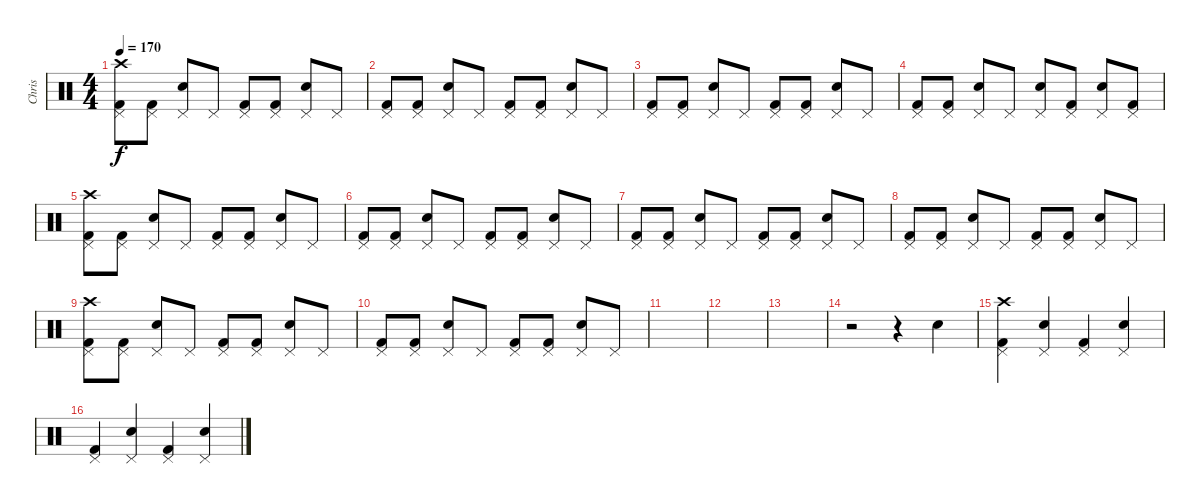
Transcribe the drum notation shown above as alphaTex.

\track ("Chris" "Chris") {instrument percussion}
\staff {score}
\articulation defaults
\ts (4 4)
\tempo 170
\clef neutral
\ks c
("Pedal Hi-Hat (hit)" "Kick (hit) 2" "Crash high (hit)").8{dy f} ("Pedal Hi-Hat (hit)" "Kick (hit) 2").8 ("Pedal Hi-Hat (hit)" "Electric Snare (hit)").8 "Pedal Hi-Hat (hit)".8 ("Pedal Hi-Hat (hit)" "Kick (hit) 2").8 ("Pedal Hi-Hat (hit)" "Kick (hit) 2").8 ("Pedal Hi-Hat (hit)" "Electric Snare (hit)").8 "Pedal Hi-Hat (hit)".8 |
("Pedal Hi-Hat (hit)" "Kick (hit) 2").8 ("Pedal Hi-Hat (hit)" "Kick (hit) 2").8 ("Pedal Hi-Hat (hit)" "Electric Snare (hit)").8 "Pedal Hi-Hat (hit)".8 ("Pedal Hi-Hat (hit)" "Kick (hit) 2").8 ("Pedal Hi-Hat (hit)" "Kick (hit) 2").8 ("Pedal Hi-Hat (hit)" "Electric Snare (hit)").8 "Pedal Hi-Hat (hit)".8 |
("Pedal Hi-Hat (hit)" "Kick (hit) 2").8 ("Pedal Hi-Hat (hit)" "Kick (hit) 2").8 ("Pedal Hi-Hat (hit)" "Electric Snare (hit)").8 "Pedal Hi-Hat (hit)".8 ("Pedal Hi-Hat (hit)" "Kick (hit) 2").8 ("Pedal Hi-Hat (hit)" "Kick (hit) 2").8 ("Pedal Hi-Hat (hit)" "Electric Snare (hit)").8 "Pedal Hi-Hat (hit)".8 |
("Pedal Hi-Hat (hit)" "Kick (hit) 2").8 ("Pedal Hi-Hat (hit)" "Kick (hit) 2").8 ("Pedal Hi-Hat (hit)" "Electric Snare (hit)").8 "Pedal Hi-Hat (hit)".8 ("Pedal Hi-Hat (hit)" "Electric Snare (hit)").8 ("Pedal Hi-Hat (hit)" "Kick (hit) 2").8 ("Pedal Hi-Hat (hit)" "Electric Snare (hit)").8 ("Pedal Hi-Hat (hit)" "Kick (hit) 2").8 |
("Pedal Hi-Hat (hit)" "Kick (hit) 2" "Crash high (hit)").8 ("Pedal Hi-Hat (hit)" "Kick (hit) 2").8 ("Pedal Hi-Hat (hit)" "Electric Snare (hit)").8 "Pedal Hi-Hat (hit)".8 ("Pedal Hi-Hat (hit)" "Kick (hit) 2").8 ("Pedal Hi-Hat (hit)" "Kick (hit) 2").8 ("Pedal Hi-Hat (hit)" "Electric Snare (hit)").8 "Pedal Hi-Hat (hit)".8 |
("Pedal Hi-Hat (hit)" "Kick (hit) 2").8 ("Pedal Hi-Hat (hit)" "Kick (hit) 2").8 ("Pedal Hi-Hat (hit)" "Electric Snare (hit)").8 "Pedal Hi-Hat (hit)".8 ("Pedal Hi-Hat (hit)" "Kick (hit) 2").8 ("Pedal Hi-Hat (hit)" "Kick (hit) 2").8 ("Pedal Hi-Hat (hit)" "Electric Snare (hit)").8 "Pedal Hi-Hat (hit)".8 |
("Pedal Hi-Hat (hit)" "Kick (hit) 2").8 ("Pedal Hi-Hat (hit)" "Kick (hit) 2").8 ("Pedal Hi-Hat (hit)" "Electric Snare (hit)").8 "Pedal Hi-Hat (hit)".8 ("Pedal Hi-Hat (hit)" "Kick (hit) 2").8 ("Pedal Hi-Hat (hit)" "Kick (hit) 2").8 ("Pedal Hi-Hat (hit)" "Electric Snare (hit)").8 "Pedal Hi-Hat (hit)".8 |
("Pedal Hi-Hat (hit)" "Kick (hit) 2").8 ("Pedal Hi-Hat (hit)" "Kick (hit) 2").8 ("Pedal Hi-Hat (hit)" "Electric Snare (hit)").8 "Pedal Hi-Hat (hit)".8 ("Pedal Hi-Hat (hit)" "Kick (hit) 2").8 ("Pedal Hi-Hat (hit)" "Kick (hit) 2").8 ("Pedal Hi-Hat (hit)" "Electric Snare (hit)").8 "Pedal Hi-Hat (hit)".8 |
("Pedal Hi-Hat (hit)" "Kick (hit) 2" "Crash high (hit)").8 ("Pedal Hi-Hat (hit)" "Kick (hit) 2").8 ("Pedal Hi-Hat (hit)" "Electric Snare (hit)").8 "Pedal Hi-Hat (hit)".8 ("Pedal Hi-Hat (hit)" "Kick (hit) 2").8 ("Pedal Hi-Hat (hit)" "Kick (hit) 2").8 ("Pedal Hi-Hat (hit)" "Electric Snare (hit)").8 "Pedal Hi-Hat (hit)".8 |
("Pedal Hi-Hat (hit)" "Kick (hit) 2").8 ("Pedal Hi-Hat (hit)" "Kick (hit) 2").8 ("Pedal Hi-Hat (hit)" "Electric Snare (hit)").8 "Pedal Hi-Hat (hit)".8 ("Pedal Hi-Hat (hit)" "Kick (hit) 2").8 ("Pedal Hi-Hat (hit)" "Kick (hit) 2").8 ("Pedal Hi-Hat (hit)" "Electric Snare (hit)").8 "Pedal Hi-Hat (hit)".8 |
|
|
|
r.2 r.4 "Electric Snare (hit)".4 |
("Pedal Hi-Hat (hit)" "Kick (hit) 2" "Crash high (hit)").4 ("Pedal Hi-Hat (hit)" "Electric Snare (hit)").4 ("Pedal Hi-Hat (hit)" "Kick (hit) 2").4 ("Pedal Hi-Hat (hit)" "Electric Snare (hit)").4 |
("Pedal Hi-Hat (hit)" "Kick (hit) 2").4 ("Pedal Hi-Hat (hit)" "Electric Snare (hit)").4 ("Pedal Hi-Hat (hit)" "Kick (hit) 2").4 ("Pedal Hi-Hat (hit)" "Electric Snare (hit)").4
